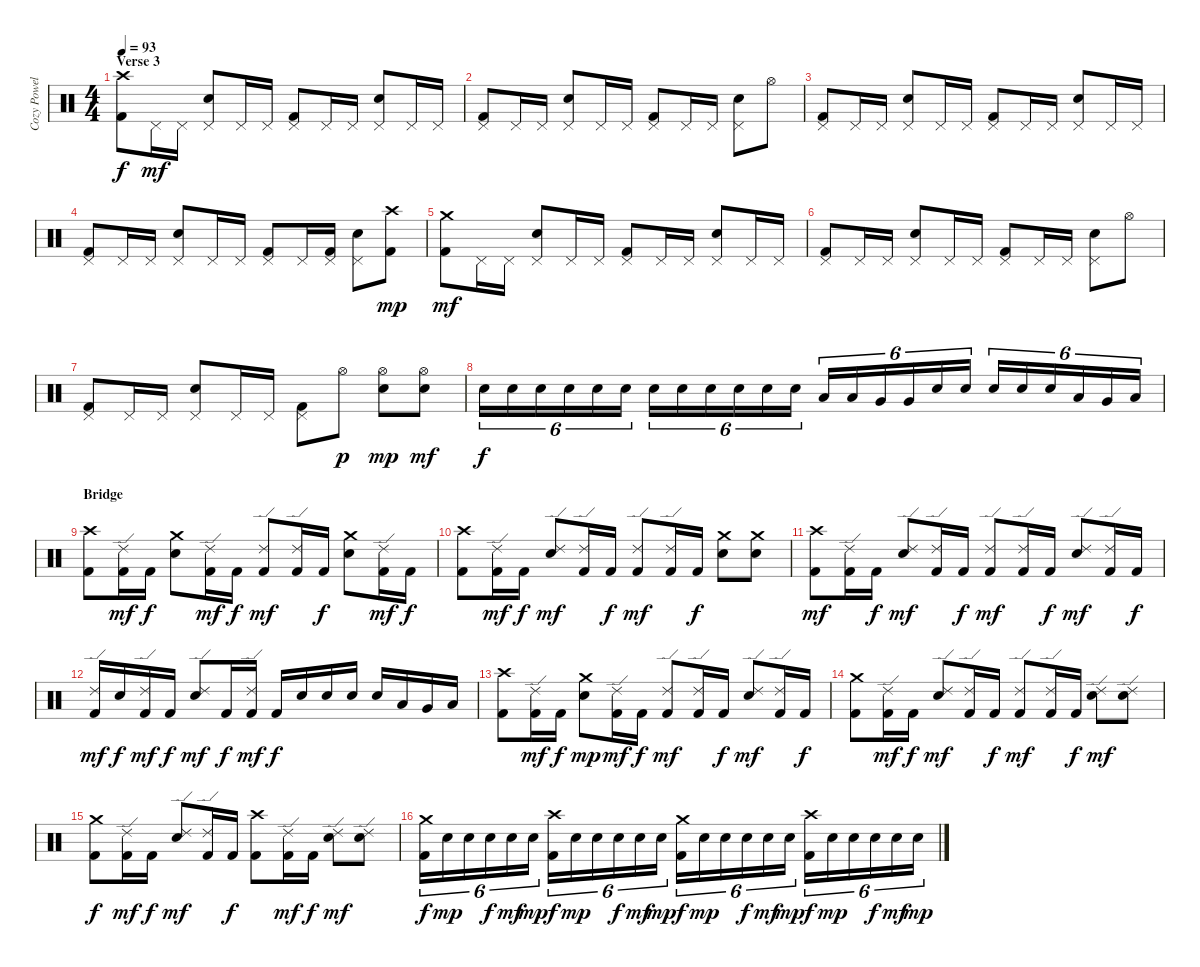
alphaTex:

\track ("Cozy Powell" "Cozy Powel") {instrument percussion}
\staff {score}
\articulation defaults
\ts (4 4)
\section ("" "Verse 3")
\tempo 93
\clef neutral
\ks c
("Kick (hit) 2" "Crash high (hit)").8{dy f} "Pedal Hi-Hat (hit)".16{dy mf} "Pedal Hi-Hat (hit)".16 ("Pedal Hi-Hat (hit)" "Snare (hit) 2").8 "Pedal Hi-Hat (hit)".16 "Pedal Hi-Hat (hit)".16 ("Kick (hit) 2" "Pedal Hi-Hat (hit)").8 "Pedal Hi-Hat (hit)".16 "Pedal Hi-Hat (hit)".16 ("Pedal Hi-Hat (hit)" "Snare (hit) 2").8 "Pedal Hi-Hat (hit)".16 "Pedal Hi-Hat (hit)".16 |
("Kick (hit) 2" "Pedal Hi-Hat (hit)").8 "Pedal Hi-Hat (hit)".16 "Pedal Hi-Hat (hit)".16 ("Pedal Hi-Hat (hit)" "Snare (hit) 2").8 "Pedal Hi-Hat (hit)".16 "Pedal Hi-Hat (hit)".16 ("Kick (hit) 2" "Pedal Hi-Hat (hit)").8 "Pedal Hi-Hat (hit)".16 "Pedal Hi-Hat (hit)".16 ("Pedal Hi-Hat (hit)" "Snare (hit) 2").8 "Hi-Hat (open)".8 |
("Kick (hit) 2" "Pedal Hi-Hat (hit)").8 "Pedal Hi-Hat (hit)".16 "Pedal Hi-Hat (hit)".16 ("Pedal Hi-Hat (hit)" "Snare (hit) 2").8 "Pedal Hi-Hat (hit)".16 "Pedal Hi-Hat (hit)".16 ("Kick (hit) 2" "Pedal Hi-Hat (hit)").8 "Pedal Hi-Hat (hit)".16 "Pedal Hi-Hat (hit)".16 ("Pedal Hi-Hat (hit)" "Snare (hit) 2").8 "Pedal Hi-Hat (hit)".16 "Pedal Hi-Hat (hit)".16 |
("Kick (hit) 2" "Pedal Hi-Hat (hit)").8 "Pedal Hi-Hat (hit)".16 "Pedal Hi-Hat (hit)".16 ("Pedal Hi-Hat (hit)" "Snare (hit) 2").8 "Pedal Hi-Hat (hit)".16 "Pedal Hi-Hat (hit)".16 ("Kick (hit) 2" "Pedal Hi-Hat (hit)").8 "Pedal Hi-Hat (hit)".16 ("Kick (hit) 2" "Pedal Hi-Hat (hit)").16 ("Pedal Hi-Hat (hit)" "Snare (hit) 2").8 ("Kick (hit) 2" "Crash high (hit)").8{dy mp} |
("Kick (hit) 2" "Crash medium (hit)").8{dy mf} "Pedal Hi-Hat (hit)".16 "Pedal Hi-Hat (hit)".16 ("Pedal Hi-Hat (hit)" "Snare (hit) 2").8 "Pedal Hi-Hat (hit)".16 "Pedal Hi-Hat (hit)".16 ("Kick (hit) 2" "Pedal Hi-Hat (hit)").8 "Pedal Hi-Hat (hit)".16 "Pedal Hi-Hat (hit)".16 ("Pedal Hi-Hat (hit)" "Snare (hit) 2").8 "Pedal Hi-Hat (hit)".16 "Pedal Hi-Hat (hit)".16 |
("Kick (hit) 2" "Pedal Hi-Hat (hit)").8 "Pedal Hi-Hat (hit)".16 "Pedal Hi-Hat (hit)".16 ("Pedal Hi-Hat (hit)" "Snare (hit) 2").8 "Pedal Hi-Hat (hit)".16 "Pedal Hi-Hat (hit)".16 ("Kick (hit) 2" "Pedal Hi-Hat (hit)").8 "Pedal Hi-Hat (hit)".16 "Pedal Hi-Hat (hit)".16 ("Pedal Hi-Hat (hit)" "Snare (hit) 2").8 "Hi-Hat (open)".8 |
("Kick (hit) 2" "Pedal Hi-Hat (hit)").8 "Pedal Hi-Hat (hit)".16 "Pedal Hi-Hat (hit)".16 ("Pedal Hi-Hat (hit)" "Snare (hit) 2").8 "Pedal Hi-Hat (hit)".16 "Pedal Hi-Hat (hit)".16 ("Kick (hit) 2" "Pedal Hi-Hat (hit)").8 "Hi-Hat (open)".8{dy p} ("Hi-Hat (open)" "Snare (hit) 2").8{dy mp} ("Hi-Hat (open)" "Snare (hit) 2").8{dy mf} |
"Snare (hit) 2".16{tu (6 4) dy f} "Snare (hit) 2".16{tu (6 4)} "Snare (hit) 2".16{tu (6 4)} "Snare (hit) 2".16{tu (6 4)} "Snare (hit) 2".16{tu (6 4)} "Snare (hit) 2".16{tu (6 4)} "Snare (hit) 2".16{tu (6 4)} "Snare (hit) 2".16{tu (6 4)} "Snare (hit) 2".16{tu (6 4)} "Snare (hit) 2".16{tu (6 4)} "Snare (hit) 2".16{tu (6 4)} "Snare (hit) 2".16{tu (6 4)} "Low Tom (hit)".16{tu (6 4)} "Low Tom (hit)".16{tu (6 4)} "Very Low Tom (hit)".16{tu (6 4)} "Very Low Tom (hit)".16{tu (6 4)} "Snare (hit) 2".16{tu (6 4)} "Snare (hit) 2".16{tu (6 4)} "Snare (hit) 2".16{tu (6 4)} "Snare (hit) 2".16{tu (6 4)} "Snare (hit) 2".16{tu (6 4)} "Low Tom (hit)".16{tu (6 4)} "Very Low Tom (hit)".16{tu (6 4)} "Low Floor Tom (hit)".16{tu (6 4)} |
\section ("" "Bridge")
("Kick (hit) 2" "Crash high (hit)").8 ("Kick (hit) 2" "Ride (edge) 2").16{dy mf} "Kick (hit) 2".16{dy f} ("Crash medium (hit)" "Snare (hit) 2").8 ("Kick (hit) 2" "Ride (edge) 2").16{dy mf} "Kick (hit) 2".16{dy f} ("Kick (hit) 2" "Ride (edge) 2").8{dy mf} ("Kick (hit) 2" "Ride (edge) 2").16 "Kick (hit) 2".16{dy f} ("Crash medium (hit)" "Snare (hit) 2").8 ("Kick (hit) 2" "Ride (edge) 2").16{dy mf} "Kick (hit) 2".16{dy f} |
("Kick (hit) 2" "Crash high (hit)").8 ("Kick (hit) 2" "Ride (edge) 2").16{dy mf} "Kick (hit) 2".16{dy f} ("Ride (edge) 2" "Snare (hit) 2").8{dy mf} ("Kick (hit) 2" "Ride (edge) 2").16 "Kick (hit) 2".16{dy f} ("Kick (hit) 2" "Ride (edge) 2").8{dy mf} ("Kick (hit) 2" "Ride (edge) 2").16 "Kick (hit) 2".16{dy f} ("Crash medium (hit)" "Snare (hit) 2").8 ("Crash medium (hit)" "Snare (hit) 2").8 |
("Kick (hit) 2" "Crash high (hit)").8{dy mf} ("Kick (hit) 2" "Ride (edge) 2").16 "Kick (hit) 2".16{dy f} ("Ride (edge) 2" "Snare (hit) 2").8{dy mf} ("Kick (hit) 2" "Ride (edge) 2").16 "Kick (hit) 2".16{dy f} ("Kick (hit) 2" "Ride (edge) 2").8{dy mf} ("Kick (hit) 2" "Ride (edge) 2").16 "Kick (hit) 2".16{dy f} ("Ride (edge) 2" "Snare (hit) 2").8{dy mf} ("Kick (hit) 2" "Ride (edge) 2").16 "Kick (hit) 2".16{dy f} |
("Kick (hit) 2" "Ride (edge) 2").16{dy mf} "Snare (hit) 2".16{dy f} ("Kick (hit) 2" "Ride (edge) 2").16{dy mf} "Kick (hit) 2".16{dy f} ("Ride (edge) 2" "Snare (hit) 2").8{dy mf} "Kick (hit) 2".16{dy f} ("Kick (hit) 2" "Ride (edge) 2").16{dy mf} "Kick (hit) 2".16{dy f} "Snare (hit) 2".16 "Snare (hit) 2".16 "Snare (hit) 2".16 "Snare (hit) 2".16 "Low Tom (hit)".16 "Very Low Tom (hit)".16 "Low Floor Tom (hit)".16 |
("Kick (hit) 2" "Crash high (hit)").8 ("Kick (hit) 2" "Ride (edge) 2").16{dy mf} "Kick (hit) 2".16{dy f} ("Crash medium (hit)" "Snare (hit) 2").8{dy mp} ("Kick (hit) 2" "Ride (edge) 2").16{dy mf} "Kick (hit) 2".16{dy f} ("Kick (hit) 2" "Ride (edge) 2").8{dy mf} ("Kick (hit) 2" "Ride (edge) 2").16 "Kick (hit) 2".16{dy f} ("Ride (edge) 2" "Snare (hit) 2").8{dy mf} ("Kick (hit) 2" "Ride (edge) 2").16 "Kick (hit) 2".16{dy f} |
("Kick (hit) 2" "Crash medium (hit)").8 ("Kick (hit) 2" "Ride (edge) 2").16{dy mf} "Kick (hit) 2".16{dy f} ("Ride (edge) 2" "Snare (hit) 2").8{dy mf} ("Kick (hit) 2" "Ride (edge) 2").16 "Kick (hit) 2".16{dy f} ("Kick (hit) 2" "Ride (edge) 2").8{dy mf} ("Kick (hit) 2" "Ride (edge) 2").16 "Kick (hit) 2".16{dy f} ("Ride (edge) 2" "Snare (hit) 2").8{dy mf} ("Ride (edge) 2" "Snare (hit) 2").8 |
("Kick (hit) 2" "Crash medium (hit)").8{dy f} ("Kick (hit) 2" "Ride (edge) 2").16{dy mf} "Kick (hit) 2".16{dy f} ("Ride (edge) 2" "Snare (hit) 2").8{dy mf} ("Kick (hit) 2" "Ride (edge) 2").16 "Kick (hit) 2".16{dy f} ("Kick (hit) 2" "Crash high (hit)").8 ("Kick (hit) 2" "Ride (edge) 2").16{dy mf} "Kick (hit) 2".16{dy f} ("Ride (edge) 2" "Snare (hit) 2").8{dy mf} ("Ride (edge) 2" "Snare (hit) 2").8 |
("Kick (hit) 2" "Crash medium (hit)").16{tu (6 4) dy f} "Snare (hit) 2".16{tu (6 4) dy mp} "Snare (hit) 2".16{tu (6 4)} "Snare (hit) 2".16{tu (6 4) dy f} "Snare (hit) 2".16{tu (6 4) dy mf} "Snare (hit) 2".16{tu (6 4) dy mp} ("Kick (hit) 2" "Crash high (hit)").16{tu (6 4) dy f} "Snare (hit) 2".16{tu (6 4) dy mp} "Snare (hit) 2".16{tu (6 4)} "Snare (hit) 2".16{tu (6 4) dy f} "Snare (hit) 2".16{tu (6 4) dy mf} "Snare (hit) 2".16{tu (6 4) dy mp} ("Kick (hit) 2" "Crash medium (hit)").16{tu (6 4) dy f} "Snare (hit) 2".16{tu (6 4) dy mp} "Snare (hit) 2".16{tu (6 4)} "Snare (hit) 2".16{tu (6 4) dy f} "Snare (hit) 2".16{tu (6 4) dy mf} "Snare (hit) 2".16{tu (6 4) dy mp} ("Kick (hit) 2" "Crash high (hit)").16{tu (6 4) dy f} "Snare (hit) 2".16{tu (6 4) dy mp} "Snare (hit) 2".16{tu (6 4)} "Snare (hit) 2".16{tu (6 4) dy f} "Snare (hit) 2".16{tu (6 4) dy mf} "Snare (hit) 2".16{tu (6 4) dy mp}
